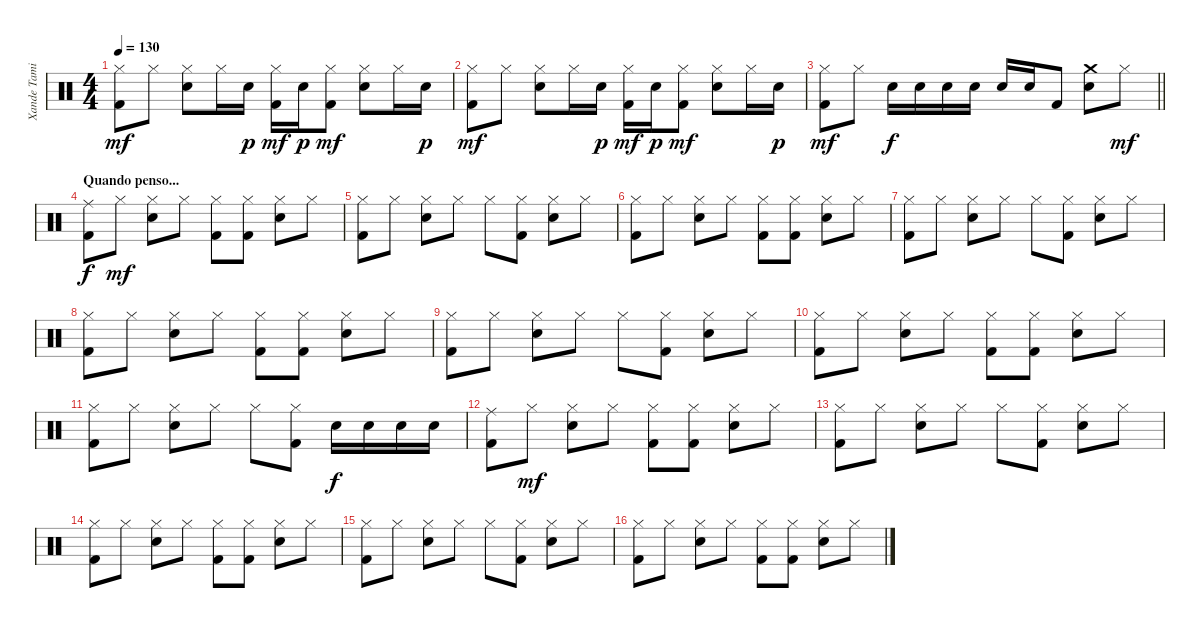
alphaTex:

\track ("Xande Tamietti" "Xande Tami") {instrument percussion}
\staff {score}
\articulation defaults
\ts (4 4)
\tempo 130
\clef neutral
\ks c
("Hi-Hat (closed)" "Kick (hit) 2").8{dy mf} "Hi-Hat (closed)".8 ("Hi-Hat (closed)" "Electric Snare (hit)").8 "Hi-Hat (closed)".16 "Snare (hit) 2".16{dy p} ("Hi-Hat (closed)" "Kick (hit) 2").16{dy mf} "Snare (hit) 2".16{dy p} ("Hi-Hat (closed)" "Kick (hit) 2").8{dy mf} ("Hi-Hat (closed)" "Electric Snare (hit)").8 "Hi-Hat (closed)".16 "Snare (hit) 2".16{dy p} |
("Hi-Hat (closed)" "Kick (hit) 2").8{dy mf} "Hi-Hat (closed)".8 ("Hi-Hat (closed)" "Electric Snare (hit)").8 "Hi-Hat (closed)".16 "Snare (hit) 2".16{dy p} ("Hi-Hat (closed)" "Kick (hit) 2").16{dy mf} "Snare (hit) 2".16{dy p} ("Hi-Hat (closed)" "Kick (hit) 2").8{dy mf} ("Hi-Hat (closed)" "Electric Snare (hit)").8 "Hi-Hat (closed)".16 "Snare (hit) 2".16{dy p} |
\barLineRight lightlight
("Hi-Hat (closed)" "Kick (hit) 2").8{dy mf} "Hi-Hat (closed)".8 "Electric Snare (hit)".16{dy f} "Electric Snare (hit)".16 "Electric Snare (hit)".16 "Electric Snare (hit)".16 "Electric Snare (hit)".16 "Electric Snare (hit)".16 "Kick (hit) 2".8 ("Crash medium (hit)" "Electric Snare (hit)").8 "Hi-Hat (closed)".8{dy mf} |
\section ("" "Quando penso...")
("Ride (middle)" "Kick (hit) 2").8{dy f} "Hi-Hat (closed)".8{dy mf} ("Hi-Hat (closed)" "Electric Snare (hit)").8 "Hi-Hat (closed)".8 ("Hi-Hat (closed)" "Kick (hit) 2").8 ("Hi-Hat (closed)" "Kick (hit) 2").8 ("Hi-Hat (closed)" "Electric Snare (hit)").8 "Hi-Hat (closed)".8 |
("Hi-Hat (closed)" "Kick (hit) 2").8 "Hi-Hat (closed)".8 ("Hi-Hat (closed)" "Electric Snare (hit)").8 "Hi-Hat (closed)".8 "Hi-Hat (closed)".8 ("Hi-Hat (closed)" "Kick (hit) 2").8 ("Hi-Hat (closed)" "Electric Snare (hit)").8 "Hi-Hat (closed)".8 |
("Hi-Hat (closed)" "Kick (hit) 2").8 "Hi-Hat (closed)".8 ("Hi-Hat (closed)" "Electric Snare (hit)").8 "Hi-Hat (closed)".8 ("Hi-Hat (closed)" "Kick (hit) 2").8 ("Hi-Hat (closed)" "Kick (hit) 2").8 ("Hi-Hat (closed)" "Electric Snare (hit)").8 "Hi-Hat (closed)".8 |
("Hi-Hat (closed)" "Kick (hit) 2").8 "Hi-Hat (closed)".8 ("Hi-Hat (closed)" "Electric Snare (hit)").8 "Hi-Hat (closed)".8 "Hi-Hat (closed)".8 ("Hi-Hat (closed)" "Kick (hit) 2").8 ("Hi-Hat (closed)" "Electric Snare (hit)").8 "Hi-Hat (closed)".8 |
("Hi-Hat (closed)" "Kick (hit) 2").8 "Hi-Hat (closed)".8 ("Hi-Hat (closed)" "Electric Snare (hit)").8 "Hi-Hat (closed)".8 ("Hi-Hat (closed)" "Kick (hit) 2").8 ("Hi-Hat (closed)" "Kick (hit) 2").8 ("Hi-Hat (closed)" "Electric Snare (hit)").8 "Hi-Hat (closed)".8 |
("Hi-Hat (closed)" "Kick (hit) 2").8 "Hi-Hat (closed)".8 ("Hi-Hat (closed)" "Electric Snare (hit)").8 "Hi-Hat (closed)".8 "Hi-Hat (closed)".8 ("Hi-Hat (closed)" "Kick (hit) 2").8 ("Hi-Hat (closed)" "Electric Snare (hit)").8 "Hi-Hat (closed)".8 |
("Hi-Hat (closed)" "Kick (hit) 2").8 "Hi-Hat (closed)".8 ("Hi-Hat (closed)" "Electric Snare (hit)").8 "Hi-Hat (closed)".8 ("Hi-Hat (closed)" "Kick (hit) 2").8 ("Hi-Hat (closed)" "Kick (hit) 2").8 ("Hi-Hat (closed)" "Electric Snare (hit)").8 "Hi-Hat (closed)".8 |
("Hi-Hat (closed)" "Kick (hit) 2").8 "Hi-Hat (closed)".8 ("Hi-Hat (closed)" "Electric Snare (hit)").8 "Hi-Hat (closed)".8 "Hi-Hat (closed)".8 ("Hi-Hat (closed)" "Kick (hit) 2").8 "Electric Snare (hit)".16{dy f} "Electric Snare (hit)".16 "Electric Snare (hit)".16 "Electric Snare (hit)".16 |
("Ride (middle)" "Kick (hit) 2").8 "Hi-Hat (closed)".8{dy mf} ("Hi-Hat (closed)" "Electric Snare (hit)").8 "Hi-Hat (closed)".8 ("Hi-Hat (closed)" "Kick (hit) 2").8 ("Hi-Hat (closed)" "Kick (hit) 2").8 ("Hi-Hat (closed)" "Electric Snare (hit)").8 "Hi-Hat (closed)".8 |
("Hi-Hat (closed)" "Kick (hit) 2").8 "Hi-Hat (closed)".8 ("Hi-Hat (closed)" "Electric Snare (hit)").8 "Hi-Hat (closed)".8 "Hi-Hat (closed)".8 ("Hi-Hat (closed)" "Kick (hit) 2").8 ("Hi-Hat (closed)" "Electric Snare (hit)").8 "Hi-Hat (closed)".8 |
("Hi-Hat (closed)" "Kick (hit) 2").8 "Hi-Hat (closed)".8 ("Hi-Hat (closed)" "Electric Snare (hit)").8 "Hi-Hat (closed)".8 ("Hi-Hat (closed)" "Kick (hit) 2").8 ("Hi-Hat (closed)" "Kick (hit) 2").8 ("Hi-Hat (closed)" "Electric Snare (hit)").8 "Hi-Hat (closed)".8 |
("Hi-Hat (closed)" "Kick (hit) 2").8 "Hi-Hat (closed)".8 ("Hi-Hat (closed)" "Electric Snare (hit)").8 "Hi-Hat (closed)".8 "Hi-Hat (closed)".8 ("Hi-Hat (closed)" "Kick (hit) 2").8 ("Hi-Hat (closed)" "Electric Snare (hit)").8 "Hi-Hat (closed)".8 |
("Hi-Hat (closed)" "Kick (hit) 2").8 "Hi-Hat (closed)".8 ("Hi-Hat (closed)" "Electric Snare (hit)").8 "Hi-Hat (closed)".8 ("Hi-Hat (closed)" "Kick (hit) 2").8 ("Hi-Hat (closed)" "Kick (hit) 2").8 ("Hi-Hat (closed)" "Electric Snare (hit)").8 "Hi-Hat (closed)".8
